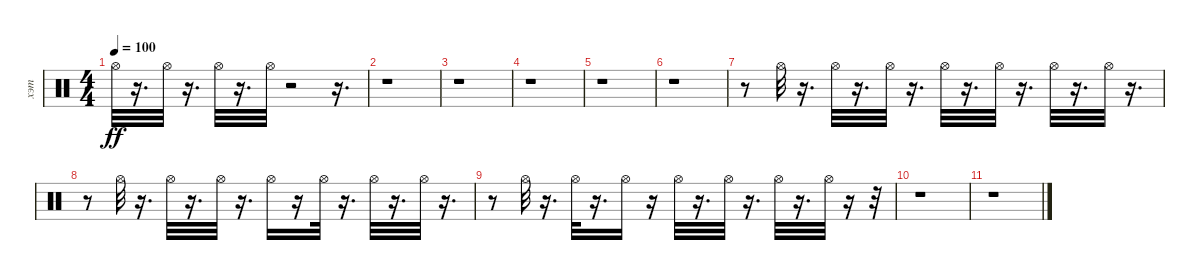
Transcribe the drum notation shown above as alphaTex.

\track ("хэт" "хэт") {instrument percussion}
\staff {score}
\articulation defaults
\ts (4 4)
\tempo 100
\clef neutral
\ks c "Hi-Hat (open)".32{dy ff}
r.16{d} "Hi-Hat (open)".32 r.16{d} "Hi-Hat (open)".32 r.16{d} "Hi-Hat (open)".32 r.2 r.16{d} |
r.1 |
r.1 |
r.1 |
r.1 |
r.1 |
r.8 "Hi-Hat (open)".32 r.16{d} "Hi-Hat (open)".32 r.16{d} "Hi-Hat (open)".32 r.16{d} "Hi-Hat (open)".32 r.16{d} "Hi-Hat (open)".32 r.16{d} "Hi-Hat (open)".32 r.16{d} "Hi-Hat (open)".32 r.16{d} |
r.8 "Hi-Hat (open)".32 r.16{d} "Hi-Hat (open)".32 r.16{d} "Hi-Hat (open)".32 r.16{d} "Hi-Hat (open)".16 r.16 "Hi-Hat (open)".32 r.16{d} "Hi-Hat (open)".32 r.16{d} "Hi-Hat (open)".32 r.16{d} |
r.8 "Hi-Hat (open)".32 r.16{d} "Hi-Hat (open)".32 r.16{d} "Hi-Hat (open)".16 r.16 "Hi-Hat (open)".32 r.16{d} "Hi-Hat (open)".32 r.16{d} "Hi-Hat (open)".32 r.16{d} "Hi-Hat (open)".32 r.16 r.32 |
r.1 |
r.1
